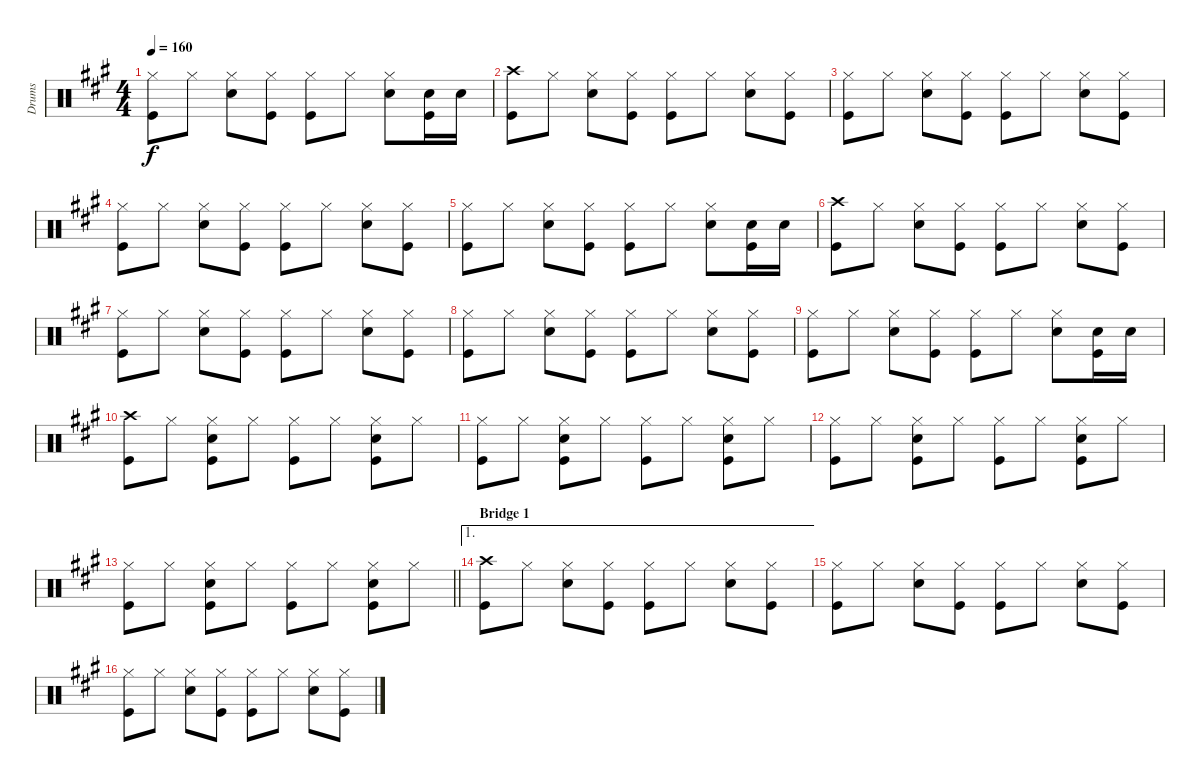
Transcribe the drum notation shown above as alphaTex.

\track ("Drums" "Drums") {instrument percussion}
\staff {score}
\articulation defaults
\ts (4 4)
\tempo 160
\clef neutral
\ks a
("Hi-Hat (closed)" "Kick (hit)").8{dy f} "Hi-Hat (closed)".8 ("Hi-Hat (closed)" "Snare (hit) 2").8 ("Hi-Hat (closed)" "Kick (hit)").8 ("Hi-Hat (closed)" "Kick (hit)").8 "Hi-Hat (closed)".8 ("Hi-Hat (closed)" "Snare (hit) 2").8 ("Snare (hit) 2" "Kick (hit)").16 "Snare (hit) 2".16 |
("Crash high (hit)" "Kick (hit)").8 "Hi-Hat (closed)".8 ("Hi-Hat (closed)" "Snare (hit) 2").8 ("Hi-Hat (closed)" "Kick (hit)").8 ("Hi-Hat (closed)" "Kick (hit)").8 "Hi-Hat (closed)".8 ("Hi-Hat (closed)" "Snare (hit) 2").8 ("Hi-Hat (closed)" "Kick (hit)").8 |
("Hi-Hat (closed)" "Kick (hit)").8 "Hi-Hat (closed)".8 ("Hi-Hat (closed)" "Snare (hit) 2").8 ("Hi-Hat (closed)" "Kick (hit)").8 ("Hi-Hat (closed)" "Kick (hit)").8 "Hi-Hat (closed)".8 ("Hi-Hat (closed)" "Snare (hit) 2").8 ("Hi-Hat (closed)" "Kick (hit)").8 |
("Hi-Hat (closed)" "Kick (hit)").8 "Hi-Hat (closed)".8 ("Hi-Hat (closed)" "Snare (hit) 2").8 ("Hi-Hat (closed)" "Kick (hit)").8 ("Hi-Hat (closed)" "Kick (hit)").8 "Hi-Hat (closed)".8 ("Hi-Hat (closed)" "Snare (hit) 2").8 ("Hi-Hat (closed)" "Kick (hit)").8 |
("Hi-Hat (closed)" "Kick (hit)").8 "Hi-Hat (closed)".8 ("Hi-Hat (closed)" "Snare (hit) 2").8 ("Hi-Hat (closed)" "Kick (hit)").8 ("Hi-Hat (closed)" "Kick (hit)").8 "Hi-Hat (closed)".8 ("Hi-Hat (closed)" "Snare (hit) 2").8 ("Snare (hit) 2" "Kick (hit)").16 "Snare (hit) 2".16 |
("Crash high (hit)" "Kick (hit)").8 "Hi-Hat (closed)".8 ("Hi-Hat (closed)" "Snare (hit) 2").8 ("Hi-Hat (closed)" "Kick (hit)").8 ("Hi-Hat (closed)" "Kick (hit)").8 "Hi-Hat (closed)".8 ("Hi-Hat (closed)" "Snare (hit) 2").8 ("Hi-Hat (closed)" "Kick (hit)").8 |
("Hi-Hat (closed)" "Kick (hit)").8 "Hi-Hat (closed)".8 ("Hi-Hat (closed)" "Snare (hit) 2").8 ("Hi-Hat (closed)" "Kick (hit)").8 ("Hi-Hat (closed)" "Kick (hit)").8 "Hi-Hat (closed)".8 ("Hi-Hat (closed)" "Snare (hit) 2").8 ("Hi-Hat (closed)" "Kick (hit)").8 |
("Hi-Hat (closed)" "Kick (hit)").8 "Hi-Hat (closed)".8 ("Hi-Hat (closed)" "Snare (hit) 2").8 ("Hi-Hat (closed)" "Kick (hit)").8 ("Hi-Hat (closed)" "Kick (hit)").8 "Hi-Hat (closed)".8 ("Hi-Hat (closed)" "Snare (hit) 2").8 ("Hi-Hat (closed)" "Kick (hit)").8 |
("Hi-Hat (closed)" "Kick (hit)").8 "Hi-Hat (closed)".8 ("Hi-Hat (closed)" "Snare (hit) 2").8 ("Hi-Hat (closed)" "Kick (hit)").8 ("Hi-Hat (closed)" "Kick (hit)").8 "Hi-Hat (closed)".8 ("Hi-Hat (closed)" "Snare (hit) 2").8 ("Snare (hit) 2" "Kick (hit)").16 "Snare (hit) 2".16 |
("Crash high (hit)" "Kick (hit)").8 "Hi-Hat (closed)".8 ("Hi-Hat (closed)" "Snare (hit) 2" "Kick (hit)").8 "Hi-Hat (closed)".8 ("Hi-Hat (closed)" "Kick (hit)").8 "Hi-Hat (closed)".8 ("Hi-Hat (closed)" "Snare (hit) 2" "Kick (hit)").8 "Hi-Hat (closed)".8 |
("Hi-Hat (closed)" "Kick (hit)").8 "Hi-Hat (closed)".8 ("Hi-Hat (closed)" "Snare (hit) 2" "Kick (hit)").8 "Hi-Hat (closed)".8 ("Hi-Hat (closed)" "Kick (hit)").8 "Hi-Hat (closed)".8 ("Hi-Hat (closed)" "Snare (hit) 2" "Kick (hit)").8 "Hi-Hat (closed)".8 |
("Hi-Hat (closed)" "Kick (hit)").8 "Hi-Hat (closed)".8 ("Hi-Hat (closed)" "Snare (hit) 2" "Kick (hit)").8 "Hi-Hat (closed)".8 ("Hi-Hat (closed)" "Kick (hit)").8 "Hi-Hat (closed)".8 ("Hi-Hat (closed)" "Snare (hit) 2" "Kick (hit)").8 "Hi-Hat (closed)".8 |
\barLineRight lightlight
("Hi-Hat (closed)" "Kick (hit)").8 "Hi-Hat (closed)".8 ("Hi-Hat (closed)" "Snare (hit) 2" "Kick (hit)").8 "Hi-Hat (closed)".8 ("Hi-Hat (closed)" "Kick (hit)").8 "Hi-Hat (closed)".8 ("Hi-Hat (closed)" "Snare (hit) 2" "Kick (hit)").8 "Hi-Hat (closed)".8 |
\ae 1
\section ("" "Bridge 1")
("Crash high (hit)" "Kick (hit)").8 "Hi-Hat (closed)".8 ("Hi-Hat (closed)" "Snare (hit) 2").8 ("Hi-Hat (closed)" "Kick (hit)").8 ("Hi-Hat (closed)" "Kick (hit)").8 "Hi-Hat (closed)".8 ("Hi-Hat (closed)" "Snare (hit) 2").8 ("Hi-Hat (closed)" "Kick (hit)").8 |
("Hi-Hat (closed)" "Kick (hit)").8 "Hi-Hat (closed)".8 ("Hi-Hat (closed)" "Snare (hit) 2").8 ("Hi-Hat (closed)" "Kick (hit)").8 ("Hi-Hat (closed)" "Kick (hit)").8 "Hi-Hat (closed)".8 ("Hi-Hat (closed)" "Snare (hit) 2").8 ("Hi-Hat (closed)" "Kick (hit)").8 |
("Hi-Hat (closed)" "Kick (hit)").8 "Hi-Hat (closed)".8 ("Hi-Hat (closed)" "Snare (hit) 2").8 ("Hi-Hat (closed)" "Kick (hit)").8 ("Hi-Hat (closed)" "Kick (hit)").8 "Hi-Hat (closed)".8 ("Hi-Hat (closed)" "Snare (hit) 2").8 ("Hi-Hat (closed)" "Kick (hit)").8
